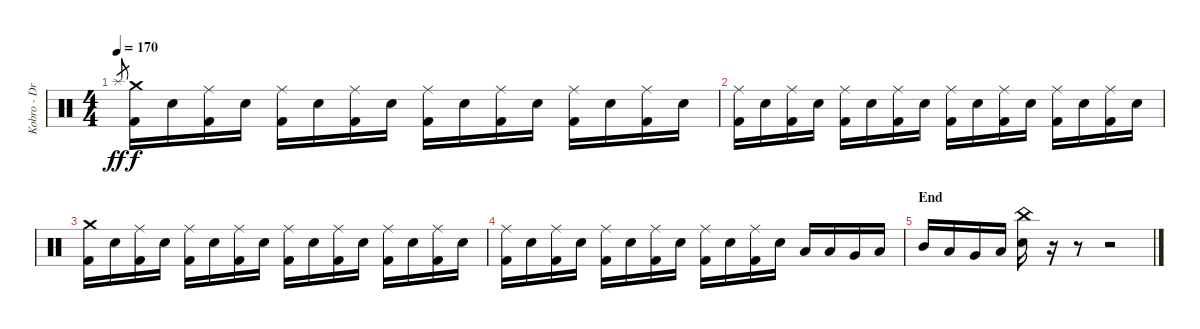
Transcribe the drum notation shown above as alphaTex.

\track ("Kobro - Drums + Percussion" "Kobro - Dr") {instrument percussion}
\staff {score}
\articulation defaults
\ts (4 4)
\tempo 170
\clef neutral
\ks c "Splash (hit)".8{gr dy ff}
("Crash medium (hit)" "Kick (hit) 2").16{dy f} "Electric Snare (hit)".16 ("Ride (middle)" "Kick (hit) 2").16 "Electric Snare (hit)".16 ("Ride (middle)" "Kick (hit) 2").16 "Electric Snare (hit)".16 ("Ride (middle)" "Kick (hit) 2").16 "Electric Snare (hit)".16 ("Ride (middle)" "Kick (hit) 2").16 "Electric Snare (hit)".16 ("Ride (middle)" "Kick (hit) 2").16 "Electric Snare (hit)".16 ("Ride (middle)" "Kick (hit) 2").16 "Electric Snare (hit)".16 ("Ride (middle)" "Kick (hit) 2").16 "Electric Snare (hit)".16 |
("Ride (middle)" "Kick (hit) 2").16 "Electric Snare (hit)".16 ("Ride (middle)" "Kick (hit) 2").16 "Electric Snare (hit)".16 ("Ride (middle)" "Kick (hit) 2").16 "Electric Snare (hit)".16 ("Ride (middle)" "Kick (hit) 2").16 "Electric Snare (hit)".16 ("Ride (middle)" "Kick (hit) 2").16 "Electric Snare (hit)".16 ("Ride (middle)" "Kick (hit) 2").16 "Electric Snare (hit)".16 ("Ride (middle)" "Kick (hit) 2").16 "Electric Snare (hit)".16 ("Ride (middle)" "Kick (hit) 2").16 "Electric Snare (hit)".16 |
("Crash medium (hit)" "Kick (hit) 2").16 "Electric Snare (hit)".16 ("Ride (middle)" "Kick (hit) 2").16 "Electric Snare (hit)".16 ("Ride (middle)" "Kick (hit) 2").16 "Electric Snare (hit)".16 ("Ride (middle)" "Kick (hit) 2").16 "Electric Snare (hit)".16 ("Ride (middle)" "Kick (hit) 2").16 "Electric Snare (hit)".16 ("Ride (middle)" "Kick (hit) 2").16 "Electric Snare (hit)".16 ("Ride (middle)" "Kick (hit) 2").16 "Electric Snare (hit)".16 ("Ride (middle)" "Kick (hit) 2").16 "Electric Snare (hit)".16 |
("Ride (middle)" "Kick (hit) 2").16 "Electric Snare (hit)".16 ("Ride (middle)" "Kick (hit) 2").16 "Electric Snare (hit)".16 ("Ride (middle)" "Kick (hit) 2").16 "Electric Snare (hit)".16 ("Ride (middle)" "Kick (hit) 2").16 "Electric Snare (hit)".16 ("Ride (middle)" "Kick (hit) 2").16 "Electric Snare (hit)".16 ("Ride (middle)" "Kick (hit) 2").16 "Electric Snare (hit)".16 "Low Tom (hit)".16 "Low Tom (hit)".16 "Very Low Tom (hit)".16 "Low Floor Tom (hit)".16 |
\section ("" "End")
"Mid Tom (hit)".16 "Low Tom (hit)".16 "Very Low Tom (hit)".16 "Low Floor Tom (hit)".16 ("China (hit)" "Electric Snare (hit)").16 r.16 r.8 r.2
